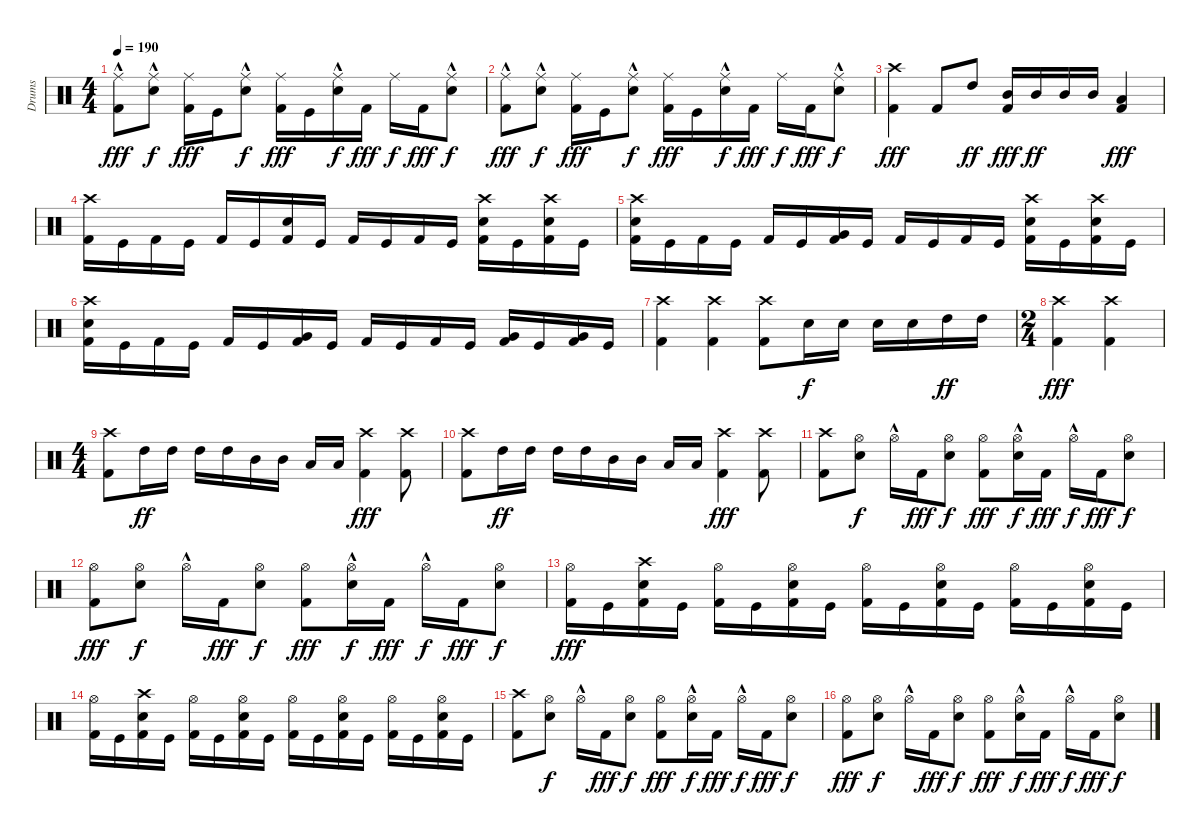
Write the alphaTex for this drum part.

\track ("Drums" "Drums") {instrument percussion}
\staff {score}
\articulation defaults
\ts (4 4)
\tempo 190
\clef neutral
\ks c
("Ride (middle)"{hac} "Kick (hit) 2").8{dy fff} ("Ride (middle)"{hac} "Electric Snare (hit)").8{dy f} ("Ride (middle)" "Kick (hit) 2").16{dy fff} "Kick (hit)".16 ("Ride (middle)"{hac} "Electric Snare (hit)").8{dy f} ("Ride (middle)" "Kick (hit) 2").16{dy fff} "Kick (hit)".16 ("Ride (middle)"{hac} "Electric Snare (hit)").16{dy f} "Kick (hit) 2".16{dy fff} "Ride (middle)".16{dy f} "Kick (hit) 2".16{dy fff} ("Ride (middle)"{hac} "Electric Snare (hit)").8{dy f} |
("Ride (middle)"{hac} "Kick (hit) 2").8{dy fff} ("Ride (middle)"{hac} "Electric Snare (hit)").8{dy f} ("Ride (middle)" "Kick (hit) 2").16{dy fff} "Kick (hit)".16 ("Ride (middle)"{hac} "Electric Snare (hit)").8{dy f} ("Ride (middle)" "Kick (hit) 2").16{dy fff} "Kick (hit)".16 ("Ride (middle)"{hac} "Electric Snare (hit)").16{dy f} "Kick (hit) 2".16{dy fff} "Ride (middle)".16{dy f} "Kick (hit) 2".16{dy fff} ("Ride (middle)"{hac} "Electric Snare (hit)").8{dy f} |
("Crash high (hit)" "Kick (hit) 2").4{dy fff} "Kick (hit) 2".8 "High Tom (hit)".8{dy ff} ("Mid Tom (hit)" "Kick (hit) 2").16{dy fff} "Mid Tom (hit)".16{dy ff} "Mid Tom (hit)".16 "Mid Tom (hit)".16 ("Low Tom (hit)" "Kick (hit) 2").4{dy fff} |
("Crash high (hit)" "Kick (hit) 2").16 "Kick (hit)".16 "Kick (hit) 2".16 "Kick (hit)".16 "Kick (hit) 2".16 "Kick (hit)".16 ("Electric Snare (hit)" "Kick (hit) 2").16 "Kick (hit)".16 "Kick (hit) 2".16 "Kick (hit)".16 "Kick (hit) 2".16 "Kick (hit)".16 ("Crash high (hit)" "Electric Snare (hit)" "Kick (hit) 2").16 "Kick (hit)".16 ("Crash high (hit)" "Electric Snare (hit)" "Kick (hit) 2").16 "Kick (hit)".16 |
("Crash high (hit)" "Electric Snare (hit)" "Kick (hit) 2").16 "Kick (hit)".16 "Kick (hit) 2".16 "Kick (hit)".16 "Kick (hit) 2".16 "Kick (hit)".16 ("Very Low Tom (hit)" "Kick (hit) 2").16 "Kick (hit)".16 "Kick (hit) 2".16 "Kick (hit)".16 "Kick (hit) 2".16 "Kick (hit)".16 ("Crash high (hit)" "Electric Snare (hit)" "Kick (hit) 2").16 "Kick (hit)".16 ("Crash high (hit)" "Electric Snare (hit)" "Kick (hit) 2").16 "Kick (hit)".16 |
("Crash high (hit)" "Electric Snare (hit)" "Kick (hit) 2").16 "Kick (hit)".16 "Kick (hit) 2".16 "Kick (hit)".16 "Kick (hit) 2".16 "Kick (hit)".16 ("Very Low Tom (hit)" "Kick (hit) 2").16 "Kick (hit)".16 "Kick (hit) 2".16 "Kick (hit)".16 "Kick (hit) 2".16 "Kick (hit)".16 ("Very Low Tom (hit)" "Kick (hit) 2").16 "Kick (hit)".16 ("Very Low Tom (hit)" "Kick (hit) 2").16 "Kick (hit)".16 |
("Crash high (hit)" "Kick (hit) 2").4 ("Crash high (hit)" "Kick (hit) 2").4 ("Crash high (hit)" "Kick (hit) 2").8 "Electric Snare (hit)".16{dy f} "Electric Snare (hit)".16 "Electric Snare (hit)".16 "Electric Snare (hit)".16 "High Tom (hit)".16{dy ff} "High Tom (hit)".16 |
\ts (2 4)
("Crash high (hit)" "Kick (hit) 2").4{dy fff} ("Crash high (hit)" "Kick (hit) 2").4 |
\ts (4 4)
("Crash high (hit)" "Kick (hit) 2").8 "High Tom (hit)".16{dy ff} "High Tom (hit)".16 "High Tom (hit)".16 "High Tom (hit)".16 "Mid Tom (hit)".16 "Mid Tom (hit)".16 "Low Tom (hit)".16 "Low Tom (hit)".16 ("Crash high (hit)" "Kick (hit) 2").4{dy fff} ("Crash high (hit)" "Kick (hit) 2").8 |
("Crash high (hit)" "Kick (hit) 2").8 "High Tom (hit)".16{dy ff} "High Tom (hit)".16 "High Tom (hit)".16 "High Tom (hit)".16 "Mid Tom (hit)".16 "Mid Tom (hit)".16 "Low Tom (hit)".16 "Low Tom (hit)".16 ("Crash high (hit)" "Kick (hit) 2").4{dy fff} ("Crash high (hit)" "Kick (hit) 2").8 |
("Crash high (hit)" "Kick (hit) 2").8 ("Hi-Hat (open)" "Electric Snare (hit)").8{dy f} "Hi-Hat (open)"{hac}.16 "Kick (hit) 2".16{dy fff} ("Hi-Hat (open)" "Electric Snare (hit)").8{dy f} ("Hi-Hat (open)" "Kick (hit) 2").8{dy fff} ("Hi-Hat (open)"{hac} "Electric Snare (hit)").16{dy f} "Kick (hit) 2".16{dy fff} "Hi-Hat (open)"{hac}.16{dy f} "Kick (hit) 2".16{dy fff} ("Hi-Hat (open)" "Electric Snare (hit)").8{dy f} |
("Hi-Hat (open)" "Kick (hit) 2").8{dy fff} ("Hi-Hat (open)" "Electric Snare (hit)").8{dy f} "Hi-Hat (open)"{hac}.16 "Kick (hit) 2".16{dy fff} ("Hi-Hat (open)" "Electric Snare (hit)").8{dy f} ("Hi-Hat (open)" "Kick (hit) 2").8{dy fff} ("Hi-Hat (open)"{hac} "Electric Snare (hit)").16{dy f} "Kick (hit) 2".16{dy fff} "Hi-Hat (open)"{hac}.16{dy f} "Kick (hit) 2".16{dy fff} ("Hi-Hat (open)" "Electric Snare (hit)").8{dy f} |
("Hi-Hat (open)" "Kick (hit) 2").16{dy fff} "Kick (hit)".16 ("Crash high (hit)" "Electric Snare (hit)" "Kick (hit) 2").16 "Kick (hit)".16 ("Hi-Hat (open)" "Kick (hit) 2").16 "Kick (hit)".16 ("Hi-Hat (open)" "Electric Snare (hit)" "Kick (hit) 2").16 "Kick (hit)".16 ("Hi-Hat (open)" "Kick (hit) 2").16 "Kick (hit)".16 ("Hi-Hat (open)" "Electric Snare (hit)" "Kick (hit) 2").16 "Kick (hit)".16 ("Hi-Hat (open)" "Kick (hit) 2").16 "Kick (hit)".16 ("Hi-Hat (open)" "Electric Snare (hit)" "Kick (hit) 2").16 "Kick (hit)".16 |
("Hi-Hat (open)" "Kick (hit) 2").16 "Kick (hit)".16 ("Crash high (hit)" "Electric Snare (hit)" "Kick (hit) 2").16 "Kick (hit)".16 ("Hi-Hat (open)" "Kick (hit) 2").16 "Kick (hit)".16 ("Hi-Hat (open)" "Electric Snare (hit)" "Kick (hit) 2").16 "Kick (hit)".16 ("Hi-Hat (open)" "Kick (hit) 2").16 "Kick (hit)".16 ("Hi-Hat (open)" "Electric Snare (hit)" "Kick (hit) 2").16 "Kick (hit)".16 ("Hi-Hat (open)" "Kick (hit) 2").16 "Kick (hit)".16 ("Hi-Hat (open)" "Electric Snare (hit)" "Kick (hit) 2").16 "Kick (hit)".16 |
("Crash high (hit)" "Kick (hit) 2").8 ("Hi-Hat (open)" "Electric Snare (hit)").8{dy f} "Hi-Hat (open)"{hac}.16 "Kick (hit) 2".16{dy fff} ("Hi-Hat (open)" "Electric Snare (hit)").8{dy f} ("Hi-Hat (open)" "Kick (hit) 2").8{dy fff} ("Hi-Hat (open)"{hac} "Electric Snare (hit)").16{dy f} "Kick (hit) 2".16{dy fff} "Hi-Hat (open)"{hac}.16{dy f} "Kick (hit) 2".16{dy fff} ("Hi-Hat (open)" "Electric Snare (hit)").8{dy f} |
("Hi-Hat (open)" "Kick (hit) 2").8{dy fff} ("Hi-Hat (open)" "Electric Snare (hit)").8{dy f} "Hi-Hat (open)"{hac}.16 "Kick (hit) 2".16{dy fff} ("Hi-Hat (open)" "Electric Snare (hit)").8{dy f} ("Hi-Hat (open)" "Kick (hit) 2").8{dy fff} ("Hi-Hat (open)"{hac} "Electric Snare (hit)").16{dy f} "Kick (hit) 2".16{dy fff} "Hi-Hat (open)"{hac}.16{dy f} "Kick (hit) 2".16{dy fff} ("Hi-Hat (open)" "Electric Snare (hit)").8{dy f}
